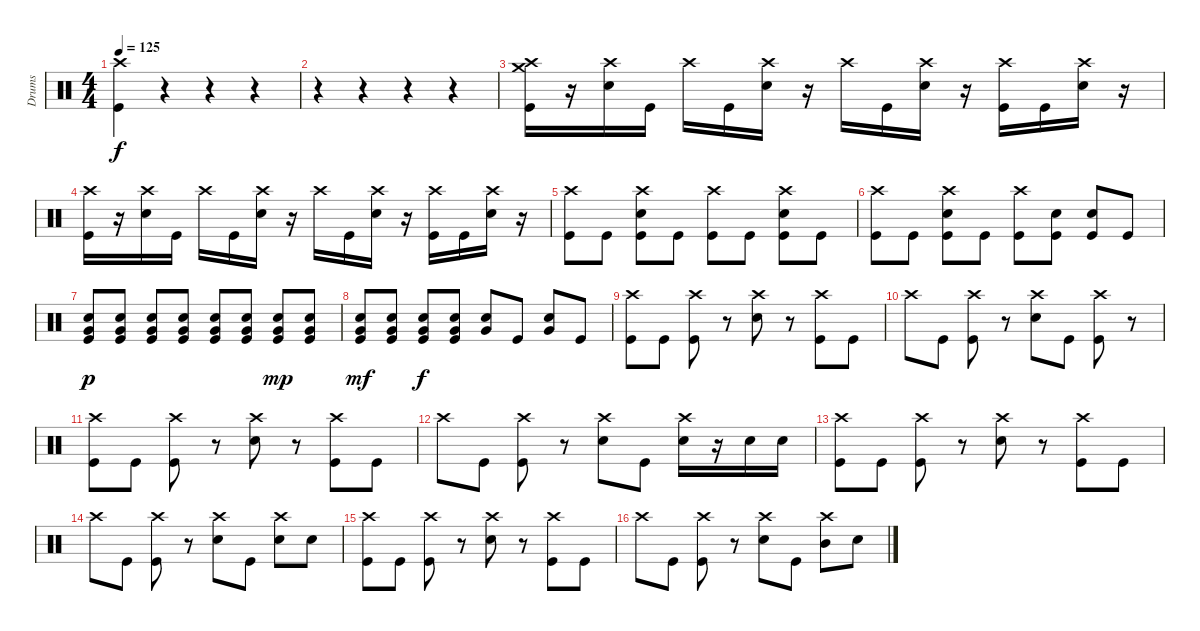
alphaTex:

\track ("Drums" "Drums") {instrument percussion}
\staff {score}
\articulation defaults
\ts (4 4)
\tempo 125
\clef neutral
\ks c
("Crash high (hit)" "Kick (hit)").4{dy f} r.4 r.4 r.4 |
r.4 r.4 r.4 r.4 |
("Crash high (hit)" "Crash medium (hit)" "Kick (hit)").16 r.16 ("Crash high (hit)" "Electric Snare (hit)").16 "Kick (hit)".16 "Crash high (hit)".16 "Kick (hit)".16 ("Crash high (hit)" "Electric Snare (hit)").16 r.16 "Crash high (hit)".16 "Kick (hit)".16 ("Crash high (hit)" "Electric Snare (hit)").16 r.16 ("Crash high (hit)" "Kick (hit)").16 "Kick (hit)".16 ("Crash high (hit)" "Electric Snare (hit)").16 r.16 |
("Crash high (hit)" "Kick (hit)").16 r.16 ("Crash high (hit)" "Electric Snare (hit)").16 "Kick (hit)".16 "Crash high (hit)".16 "Kick (hit)".16 ("Crash high (hit)" "Electric Snare (hit)").16 r.16 "Crash high (hit)".16 "Kick (hit)".16 ("Crash high (hit)" "Electric Snare (hit)").16 r.16 ("Crash high (hit)" "Kick (hit)").16 "Kick (hit)".16 ("Crash high (hit)" "Electric Snare (hit)").16 r.16 |
("Crash high (hit)" "Kick (hit)").8 "Kick (hit)".8 ("Crash high (hit)" "Electric Snare (hit)" "Kick (hit)").8 "Kick (hit)".8 ("Crash high (hit)" "Kick (hit)").8 "Kick (hit)".8 ("Crash high (hit)" "Electric Snare (hit)" "Kick (hit)").8 "Kick (hit)".8 |
("Crash high (hit)" "Kick (hit)").8 "Kick (hit)".8 ("Crash high (hit)" "Electric Snare (hit)" "Kick (hit)").8 "Kick (hit)".8 ("Crash high (hit)" "Kick (hit)").8 ("Electric Snare (hit)" "Kick (hit)").8 ("Electric Snare (hit)" "Kick (hit)").8 "Kick (hit)".8 |
("Very Low Tom (hit)" "Electric Snare (hit)" "Kick (hit)").8{dy p} ("Very Low Tom (hit)" "Electric Snare (hit)" "Kick (hit)").8 ("Very Low Tom (hit)" "Electric Snare (hit)" "Kick (hit)").8 ("Very Low Tom (hit)" "Electric Snare (hit)" "Kick (hit)").8 ("Very Low Tom (hit)" "Electric Snare (hit)" "Kick (hit)").8 ("Very Low Tom (hit)" "Electric Snare (hit)" "Kick (hit)").8 ("Very Low Tom (hit)" "Electric Snare (hit)" "Kick (hit)").8{dy mp} ("Very Low Tom (hit)" "Electric Snare (hit)" "Kick (hit)").8 |
("Very Low Tom (hit)" "Electric Snare (hit)" "Kick (hit)").8{dy mf} ("Very Low Tom (hit)" "Electric Snare (hit)" "Kick (hit)").8 ("Very Low Tom (hit)" "Electric Snare (hit)" "Kick (hit)").8{dy f} ("Very Low Tom (hit)" "Electric Snare (hit)" "Kick (hit)").8 ("Very Low Tom (hit)" "Electric Snare (hit)").8 "Kick (hit)".8 ("Very Low Tom (hit)" "Electric Snare (hit)").8 "Kick (hit)".8 |
("Crash high (hit)" "Kick (hit)").8 "Kick (hit)".8 ("Crash high (hit)" "Kick (hit)").8 r.8 ("Crash high (hit)" "Electric Snare (hit)").8 r.8 ("Crash high (hit)" "Kick (hit)").8 "Kick (hit)".8 |
"Crash high (hit)".8 "Kick (hit)".8 ("Crash high (hit)" "Kick (hit)").8 r.8 ("Crash high (hit)" "Electric Snare (hit)").8 "Kick (hit)".8 ("Crash high (hit)" "Kick (hit)").8 r.8 |
("Crash high (hit)" "Kick (hit)").8 "Kick (hit)".8 ("Crash high (hit)" "Kick (hit)").8 r.8 ("Crash high (hit)" "Electric Snare (hit)").8 r.8 ("Crash high (hit)" "Kick (hit)").8 "Kick (hit)".8 |
"Crash high (hit)".8 "Kick (hit)".8 ("Crash high (hit)" "Kick (hit)").8 r.8 ("Crash high (hit)" "Electric Snare (hit)").8 "Kick (hit)".8 ("Crash high (hit)" "Electric Snare (hit)").16 r.16 "Electric Snare (hit)".16 "Electric Snare (hit)".16 |
("Crash high (hit)" "Kick (hit)").8 "Kick (hit)".8 ("Crash high (hit)" "Kick (hit)").8 r.8 ("Crash high (hit)" "Electric Snare (hit)").8 r.8 ("Crash high (hit)" "Kick (hit)").8 "Kick (hit)".8 |
"Crash high (hit)".8 "Kick (hit)".8 ("Crash high (hit)" "Kick (hit)").8 r.8 ("Crash high (hit)" "Electric Snare (hit)").8 "Kick (hit)".8 ("Crash high (hit)" "Electric Snare (hit)").8 "Electric Snare (hit)".8 |
("Crash high (hit)" "Kick (hit)").8 "Kick (hit)".8 ("Crash high (hit)" "Kick (hit)").8 r.8 ("Crash high (hit)" "Electric Snare (hit)").8 r.8 ("Crash high (hit)" "Kick (hit)").8 "Kick (hit)".8 |
"Crash high (hit)".8 "Kick (hit)".8 ("Crash high (hit)" "Kick (hit)").8 r.8 ("Crash high (hit)" "Electric Snare (hit)").8 "Kick (hit)".8 ("Crash high (hit)" "Mid Tom (hit)").8 "Electric Snare (hit)".8
